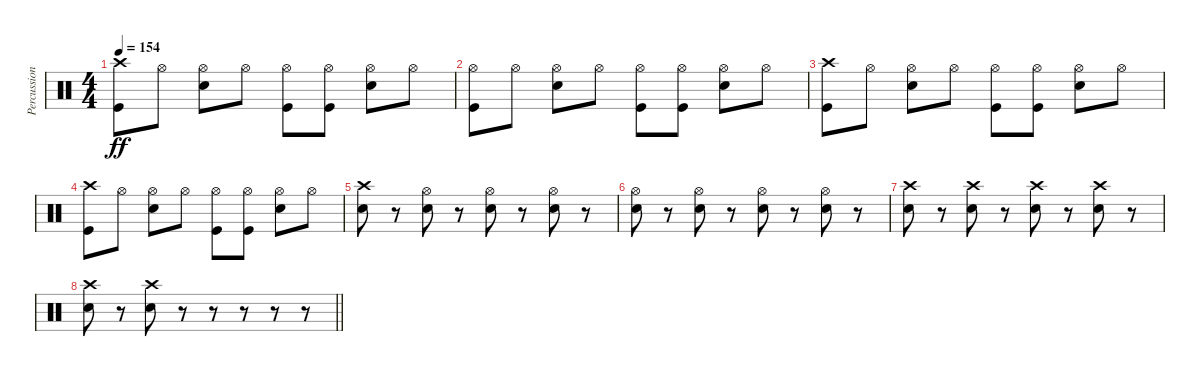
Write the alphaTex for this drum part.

\track ("Percussion" "Percussion") {instrument percussion}
\staff {score}
\articulation defaults
\ts (4 4)
\tempo 154
\clef neutral
\ks c
("Crash high (hit)" "Kick (hit)").8{dy ff} "Hi-Hat (open)".8 ("Hi-Hat (open)" "Electric Snare (hit)").8 "Hi-Hat (open)".8 ("Hi-Hat (open)" "Kick (hit)").8 ("Hi-Hat (open)" "Kick (hit)").8 ("Hi-Hat (open)" "Electric Snare (hit)").8 "Hi-Hat (open)".8 |
("Hi-Hat (open)" "Kick (hit)").8 "Hi-Hat (open)".8 ("Hi-Hat (open)" "Electric Snare (hit)").8 "Hi-Hat (open)".8 ("Hi-Hat (open)" "Kick (hit)").8 ("Hi-Hat (open)" "Kick (hit)").8 ("Hi-Hat (open)" "Electric Snare (hit)").8 "Hi-Hat (open)".8 |
("Crash high (hit)" "Kick (hit)").8 "Hi-Hat (open)".8 ("Hi-Hat (open)" "Electric Snare (hit)").8 "Hi-Hat (open)".8 ("Hi-Hat (open)" "Kick (hit)").8 ("Hi-Hat (open)" "Kick (hit)").8 ("Hi-Hat (open)" "Electric Snare (hit)").8 "Hi-Hat (open)".8 |
("Crash high (hit)" "Kick (hit)").8 "Hi-Hat (open)".8 ("Hi-Hat (open)" "Electric Snare (hit)").8 "Hi-Hat (open)".8 ("Hi-Hat (open)" "Kick (hit)").8 ("Hi-Hat (open)" "Kick (hit)").8 ("Hi-Hat (open)" "Electric Snare (hit)").8 "Hi-Hat (open)".8 |
("Crash high (hit)" "Electric Snare (hit)").8 r.8 ("Hi-Hat (open)" "Electric Snare (hit)").8 r.8 ("Hi-Hat (open)" "Electric Snare (hit)").8 r.8 ("Hi-Hat (open)" "Electric Snare (hit)").8 r.8 |
("Hi-Hat (open)" "Electric Snare (hit)").8 r.8 ("Hi-Hat (open)" "Electric Snare (hit)").8 r.8 ("Hi-Hat (open)" "Electric Snare (hit)").8 r.8 ("Hi-Hat (open)" "Electric Snare (hit)").8 r.8 |
("Crash high (hit)" "Electric Snare (hit)").8 r.8 ("Crash high (hit)" "Electric Snare (hit)").8 r.8 ("Crash high (hit)" "Electric Snare (hit)").8 r.8 ("Crash high (hit)" "Electric Snare (hit)").8 r.8 |
\barLineRight lightlight
("Crash high (hit)" "Electric Snare (hit)").8 r.8 ("Crash high (hit)" "Electric Snare (hit)").8 r.8 r.8 r.8 r.8 r.8
